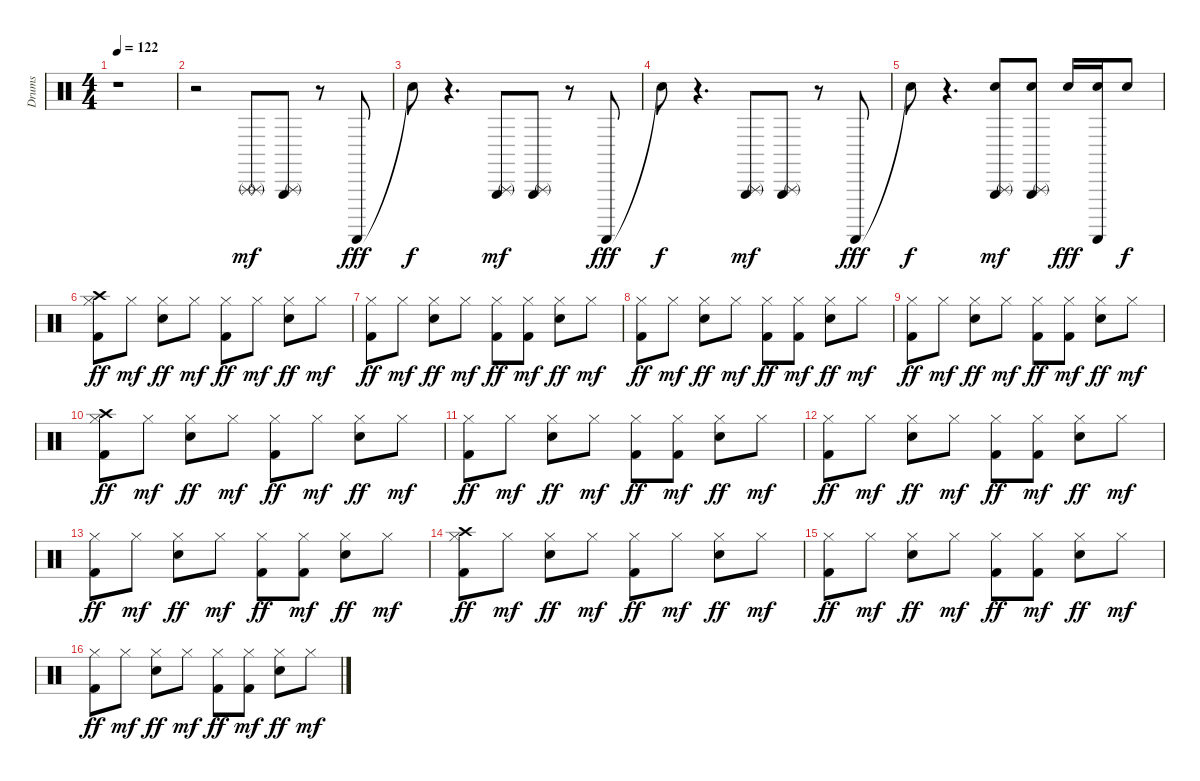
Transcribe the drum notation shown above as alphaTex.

\track ("Drums" "Drums") {instrument percussion}
\staff {score}
\articulation defaults
\ts (4 4)
\tempo 122
\clef neutral
\ks c
r.1{dy mf} |
r.2 ("Triangle (rnute)" "Triangle (rnute)").8 ("Triangle (rnute)" "Triangle (hit)").8 r.8 "Guiro (scrap-return)".8{dy fff} |
"Snare (hit)"{t}.8{dy f} r.4{d} ("Triangle (rnute)" "Triangle (hit)").8{dy mf} ("Triangle (rnute)" "Triangle (hit)").8 r.8 "Guiro (scrap-return)".8{dy fff} |
"Snare (hit)"{t}.8{dy f} r.4{d} ("Triangle (rnute)" "Triangle (hit)").8{dy mf} ("Triangle (rnute)" "Triangle (hit)").8 r.8 "Guiro (scrap-return)".8{dy fff} |
"Snare (hit)"{t}.8{dy f} r.4{d} ("Snare (hit) 2" "Triangle (rnute)" "Triangle (hit)").8{dy mf} ("Snare (hit) 2" "Triangle (rnute)" "Triangle (hit)").8 "Snare (hit) 2".16{dy fff} ("Snare (hit) 2" "Guiro (scrap-return)").16 "Snare (hit) 2".8{dy f} |
("Kick (hit) 2" "Hi-Hat (closed)" "Crash high (hit)").8{dy ff} "Hi-Hat (closed)".8{dy mf} ("Snare (hit) 2" "Hi-Hat (closed)").8{dy ff} "Hi-Hat (closed)".8{dy mf} ("Kick (hit) 2" "Hi-Hat (closed)").8{dy ff} "Hi-Hat (closed)".8{dy mf} ("Snare (hit) 2" "Hi-Hat (closed)").8{dy ff} "Hi-Hat (closed)".8{dy mf} |
("Kick (hit) 2" "Hi-Hat (closed)").8{dy ff} "Hi-Hat (closed)".8{dy mf} ("Snare (hit) 2" "Hi-Hat (closed)").8{dy ff} "Hi-Hat (closed)".8{dy mf} ("Kick (hit) 2" "Hi-Hat (closed)").8{dy ff} ("Kick (hit) 2" "Hi-Hat (closed)").8{dy mf} ("Snare (hit) 2" "Hi-Hat (closed)").8{dy ff} "Hi-Hat (closed)".8{dy mf} |
("Kick (hit) 2" "Hi-Hat (closed)").8{dy ff} "Hi-Hat (closed)".8{dy mf} ("Snare (hit) 2" "Hi-Hat (closed)").8{dy ff} "Hi-Hat (closed)".8{dy mf} ("Kick (hit) 2" "Hi-Hat (closed)").8{dy ff} ("Kick (hit) 2" "Hi-Hat (closed)").8{dy mf} ("Snare (hit) 2" "Hi-Hat (closed)").8{dy ff} "Hi-Hat (closed)".8{dy mf} |
("Kick (hit) 2" "Hi-Hat (closed)").8{dy ff} "Hi-Hat (closed)".8{dy mf} ("Snare (hit) 2" "Hi-Hat (closed)").8{dy ff} "Hi-Hat (closed)".8{dy mf} ("Kick (hit) 2" "Hi-Hat (closed)").8{dy ff} ("Kick (hit) 2" "Hi-Hat (closed)").8{dy mf} ("Snare (hit) 2" "Hi-Hat (closed)").8{dy ff} "Hi-Hat (closed)".8{dy mf} |
("Kick (hit) 2" "Hi-Hat (closed)" "Crash high (hit)").8{dy ff} "Hi-Hat (closed)".8{dy mf} ("Snare (hit) 2" "Hi-Hat (closed)").8{dy ff} "Hi-Hat (closed)".8{dy mf} ("Kick (hit) 2" "Hi-Hat (closed)").8{dy ff} "Hi-Hat (closed)".8{dy mf} ("Snare (hit) 2" "Hi-Hat (closed)").8{dy ff} "Hi-Hat (closed)".8{dy mf} |
("Kick (hit) 2" "Hi-Hat (closed)").8{dy ff} "Hi-Hat (closed)".8{dy mf} ("Snare (hit) 2" "Hi-Hat (closed)").8{dy ff} "Hi-Hat (closed)".8{dy mf} ("Kick (hit) 2" "Hi-Hat (closed)").8{dy ff} ("Kick (hit) 2" "Hi-Hat (closed)").8{dy mf} ("Snare (hit) 2" "Hi-Hat (closed)").8{dy ff} "Hi-Hat (closed)".8{dy mf} |
("Kick (hit) 2" "Hi-Hat (closed)").8{dy ff} "Hi-Hat (closed)".8{dy mf} ("Snare (hit) 2" "Hi-Hat (closed)").8{dy ff} "Hi-Hat (closed)".8{dy mf} ("Kick (hit) 2" "Hi-Hat (closed)").8{dy ff} ("Kick (hit) 2" "Hi-Hat (closed)").8{dy mf} ("Snare (hit) 2" "Hi-Hat (closed)").8{dy ff} "Hi-Hat (closed)".8{dy mf} |
("Kick (hit) 2" "Hi-Hat (closed)").8{dy ff} "Hi-Hat (closed)".8{dy mf} ("Snare (hit) 2" "Hi-Hat (closed)").8{dy ff} "Hi-Hat (closed)".8{dy mf} ("Kick (hit) 2" "Hi-Hat (closed)").8{dy ff} ("Kick (hit) 2" "Hi-Hat (closed)").8{dy mf} ("Snare (hit) 2" "Hi-Hat (closed)").8{dy ff} "Hi-Hat (closed)".8{dy mf} |
("Kick (hit) 2" "Hi-Hat (closed)" "Crash high (hit)").8{dy ff} "Hi-Hat (closed)".8{dy mf} ("Snare (hit) 2" "Hi-Hat (closed)").8{dy ff} "Hi-Hat (closed)".8{dy mf} ("Kick (hit) 2" "Hi-Hat (closed)").8{dy ff} "Hi-Hat (closed)".8{dy mf} ("Snare (hit) 2" "Hi-Hat (closed)").8{dy ff} "Hi-Hat (closed)".8{dy mf} |
("Kick (hit) 2" "Hi-Hat (closed)").8{dy ff} "Hi-Hat (closed)".8{dy mf} ("Snare (hit) 2" "Hi-Hat (closed)").8{dy ff} "Hi-Hat (closed)".8{dy mf} ("Kick (hit) 2" "Hi-Hat (closed)").8{dy ff} ("Kick (hit) 2" "Hi-Hat (closed)").8{dy mf} ("Snare (hit) 2" "Hi-Hat (closed)").8{dy ff} "Hi-Hat (closed)".8{dy mf} |
("Kick (hit) 2" "Hi-Hat (closed)").8{dy ff} "Hi-Hat (closed)".8{dy mf} ("Snare (hit) 2" "Hi-Hat (closed)").8{dy ff} "Hi-Hat (closed)".8{dy mf} ("Kick (hit) 2" "Hi-Hat (closed)").8{dy ff} ("Kick (hit) 2" "Hi-Hat (closed)").8{dy mf} ("Snare (hit) 2" "Hi-Hat (closed)").8{dy ff} "Hi-Hat (closed)".8{dy mf}
